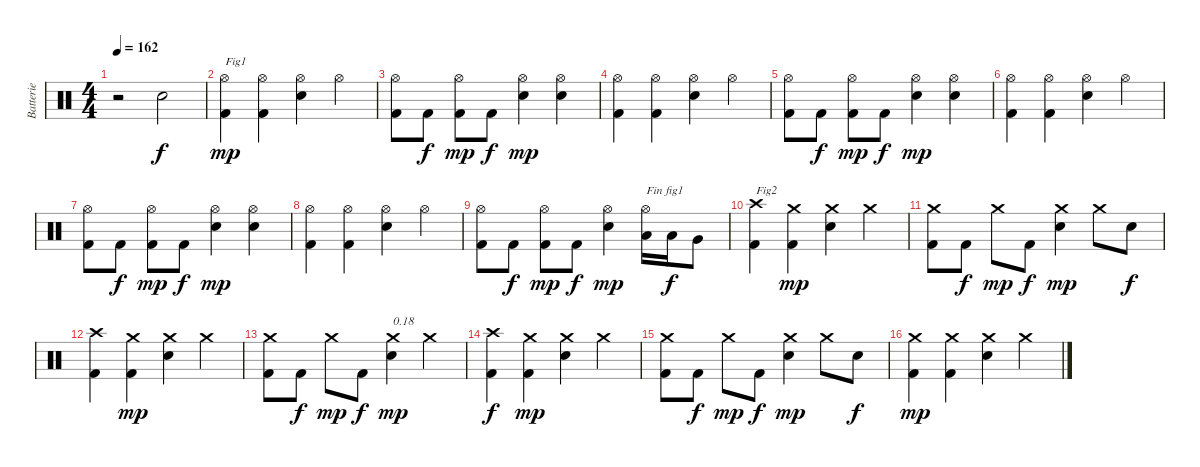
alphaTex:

\track ("Batterie" "Batterie") {instrument percussion}
\staff {score}
\articulation defaults
\ts (4 4)
\tempo 162
\clef neutral
\ks c
r.2{dy f} "Electric Snare (hit)".2 |
("Kick (hit) 2" "Hi-Hat (open)").4{txt "Fig1" dy mp} ("Kick (hit) 2" "Hi-Hat (open)").4 ("Electric Snare (hit)" "Hi-Hat (open)").4 "Hi-Hat (open)".4 |
("Kick (hit) 2" "Hi-Hat (open)").8 "Kick (hit) 2".8{dy f} ("Kick (hit) 2" "Hi-Hat (open)").8{dy mp} "Kick (hit) 2".8{dy f} ("Electric Snare (hit)" "Hi-Hat (open)").4{dy mp} ("Electric Snare (hit)" "Hi-Hat (open)").4 |
("Kick (hit) 2" "Hi-Hat (open)").4 ("Kick (hit) 2" "Hi-Hat (open)").4 ("Electric Snare (hit)" "Hi-Hat (open)").4 "Hi-Hat (open)".4 |
("Kick (hit) 2" "Hi-Hat (open)").8 "Kick (hit) 2".8{dy f} ("Kick (hit) 2" "Hi-Hat (open)").8{dy mp} "Kick (hit) 2".8{dy f} ("Electric Snare (hit)" "Hi-Hat (open)").4{dy mp} ("Electric Snare (hit)" "Hi-Hat (open)").4 |
("Kick (hit) 2" "Hi-Hat (open)").4 ("Kick (hit) 2" "Hi-Hat (open)").4 ("Electric Snare (hit)" "Hi-Hat (open)").4 "Hi-Hat (open)".4 |
("Kick (hit) 2" "Hi-Hat (open)").8 "Kick (hit) 2".8{dy f} ("Kick (hit) 2" "Hi-Hat (open)").8{dy mp} "Kick (hit) 2".8{dy f} ("Electric Snare (hit)" "Hi-Hat (open)").4{dy mp} ("Electric Snare (hit)" "Hi-Hat (open)").4 |
("Kick (hit) 2" "Hi-Hat (open)").4 ("Kick (hit) 2" "Hi-Hat (open)").4 ("Electric Snare (hit)" "Hi-Hat (open)").4 "Hi-Hat (open)".4 |
("Kick (hit) 2" "Hi-Hat (open)").8 "Kick (hit) 2".8{dy f} ("Kick (hit) 2" "Hi-Hat (open)").8{dy mp} "Kick (hit) 2".8{dy f} ("Electric Snare (hit)" "Hi-Hat (open)").4{dy mp} ("Low Tom (hit)" "Hi-Hat (open)").16{txt "Fin fig1"} "Low Tom (hit)".16{dy f} "Very Low Tom (hit)".8 |
("Kick (hit) 2" "Crash high (hit)").4{txt "Fig2"} ("Kick (hit) 2" "Crash medium (hit)").4{dy mp} ("Electric Snare (hit)" "Crash medium (hit)").4 "Crash medium (hit)".4 |
("Kick (hit) 2" "Crash medium (hit)").8 "Kick (hit) 2".8{dy f} "Crash medium (hit)".8{dy mp} "Kick (hit) 2".8{dy f} ("Electric Snare (hit)" "Crash medium (hit)").4{dy mp} "Crash medium (hit)".8 "Electric Snare (hit)".8{dy f} |
("Kick (hit) 2" "Crash high (hit)").4 ("Kick (hit) 2" "Crash medium (hit)").4{dy mp} ("Electric Snare (hit)" "Crash medium (hit)").4 "Crash medium (hit)".4 |
("Kick (hit) 2" "Crash medium (hit)").8 "Kick (hit) 2".8{dy f} "Crash medium (hit)".8{dy mp} "Kick (hit) 2".8{dy f} ("Electric Snare (hit)" "Crash medium (hit)").4{txt "0.18" dy mp} "Crash medium (hit)".4 |
("Kick (hit) 2" "Crash high (hit)").4{dy f} ("Kick (hit) 2" "Crash medium (hit)").4{dy mp} ("Electric Snare (hit)" "Crash medium (hit)").4 "Crash medium (hit)".4 |
("Kick (hit) 2" "Crash medium (hit)").8 "Kick (hit) 2".8{dy f} "Crash medium (hit)".8{dy mp} "Kick (hit) 2".8{dy f} ("Electric Snare (hit)" "Crash medium (hit)").4{dy mp} "Crash medium (hit)".8 "Electric Snare (hit)".8{dy f} |
("Kick (hit) 2" "Crash medium (hit)").4{dy mp} ("Kick (hit) 2" "Crash medium (hit)").4 ("Electric Snare (hit)" "Crash medium (hit)").4 "Crash medium (hit)".4
